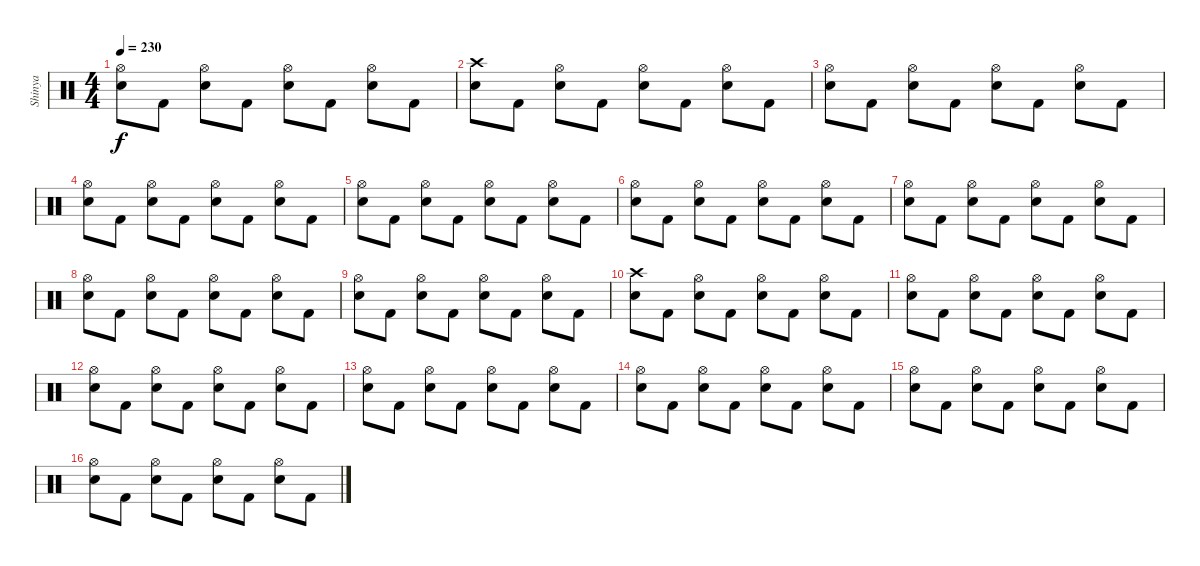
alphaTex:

\track ("Shinya" "Shinya") {instrument percussion}
\staff {score}
\articulation defaults
\ts (4 4)
\tempo 230
\clef neutral
\ks c
("Hi-Hat (open)" "Electric Snare (hit)").8{dy f} "Kick (hit) 2".8 ("Hi-Hat (open)" "Electric Snare (hit)").8 "Kick (hit) 2".8 ("Hi-Hat (open)" "Electric Snare (hit)").8 "Kick (hit) 2".8 ("Hi-Hat (open)" "Electric Snare (hit)").8 "Kick (hit) 2".8 |
("Crash high (hit)" "Electric Snare (hit)").8 "Kick (hit) 2".8 ("Hi-Hat (open)" "Electric Snare (hit)").8 "Kick (hit) 2".8 ("Hi-Hat (open)" "Electric Snare (hit)").8 "Kick (hit) 2".8 ("Hi-Hat (open)" "Electric Snare (hit)").8 "Kick (hit) 2".8 |
("Hi-Hat (open)" "Electric Snare (hit)").8 "Kick (hit) 2".8 ("Hi-Hat (open)" "Electric Snare (hit)").8 "Kick (hit) 2".8 ("Hi-Hat (open)" "Electric Snare (hit)").8 "Kick (hit) 2".8 ("Hi-Hat (open)" "Electric Snare (hit)").8 "Kick (hit) 2".8 |
("Hi-Hat (open)" "Electric Snare (hit)").8 "Kick (hit) 2".8 ("Hi-Hat (open)" "Electric Snare (hit)").8 "Kick (hit) 2".8 ("Hi-Hat (open)" "Electric Snare (hit)").8 "Kick (hit) 2".8 ("Hi-Hat (open)" "Electric Snare (hit)").8 "Kick (hit) 2".8 |
("Hi-Hat (open)" "Electric Snare (hit)").8 "Kick (hit) 2".8 ("Hi-Hat (open)" "Electric Snare (hit)").8 "Kick (hit) 2".8 ("Hi-Hat (open)" "Electric Snare (hit)").8 "Kick (hit) 2".8 ("Hi-Hat (open)" "Electric Snare (hit)").8 "Kick (hit) 2".8 |
("Hi-Hat (open)" "Electric Snare (hit)").8 "Kick (hit) 2".8 ("Hi-Hat (open)" "Electric Snare (hit)").8 "Kick (hit) 2".8 ("Hi-Hat (open)" "Electric Snare (hit)").8 "Kick (hit) 2".8 ("Hi-Hat (open)" "Electric Snare (hit)").8 "Kick (hit) 2".8 |
("Hi-Hat (open)" "Electric Snare (hit)").8 "Kick (hit) 2".8 ("Hi-Hat (open)" "Electric Snare (hit)").8 "Kick (hit) 2".8 ("Hi-Hat (open)" "Electric Snare (hit)").8 "Kick (hit) 2".8 ("Hi-Hat (open)" "Electric Snare (hit)").8 "Kick (hit) 2".8 |
("Hi-Hat (open)" "Electric Snare (hit)").8 "Kick (hit) 2".8 ("Hi-Hat (open)" "Electric Snare (hit)").8 "Kick (hit) 2".8 ("Hi-Hat (open)" "Electric Snare (hit)").8 "Kick (hit) 2".8 ("Hi-Hat (open)" "Electric Snare (hit)").8 "Kick (hit) 2".8 |
("Hi-Hat (open)" "Electric Snare (hit)").8 "Kick (hit) 2".8 ("Hi-Hat (open)" "Electric Snare (hit)").8 "Kick (hit) 2".8 ("Hi-Hat (open)" "Electric Snare (hit)").8 "Kick (hit) 2".8 ("Hi-Hat (open)" "Electric Snare (hit)").8 "Kick (hit) 2".8 |
("Crash high (hit)" "Electric Snare (hit)").8 "Kick (hit) 2".8 ("Hi-Hat (open)" "Electric Snare (hit)").8 "Kick (hit) 2".8 ("Hi-Hat (open)" "Electric Snare (hit)").8 "Kick (hit) 2".8 ("Hi-Hat (open)" "Electric Snare (hit)").8 "Kick (hit) 2".8 |
("Hi-Hat (open)" "Electric Snare (hit)").8 "Kick (hit) 2".8 ("Hi-Hat (open)" "Electric Snare (hit)").8 "Kick (hit) 2".8 ("Hi-Hat (open)" "Electric Snare (hit)").8 "Kick (hit) 2".8 ("Hi-Hat (open)" "Electric Snare (hit)").8 "Kick (hit) 2".8 |
("Hi-Hat (open)" "Electric Snare (hit)").8 "Kick (hit) 2".8 ("Hi-Hat (open)" "Electric Snare (hit)").8 "Kick (hit) 2".8 ("Hi-Hat (open)" "Electric Snare (hit)").8 "Kick (hit) 2".8 ("Hi-Hat (open)" "Electric Snare (hit)").8 "Kick (hit) 2".8 |
("Hi-Hat (open)" "Electric Snare (hit)").8 "Kick (hit) 2".8 ("Hi-Hat (open)" "Electric Snare (hit)").8 "Kick (hit) 2".8 ("Hi-Hat (open)" "Electric Snare (hit)").8 "Kick (hit) 2".8 ("Hi-Hat (open)" "Electric Snare (hit)").8 "Kick (hit) 2".8 |
("Hi-Hat (open)" "Electric Snare (hit)").8 "Kick (hit) 2".8 ("Hi-Hat (open)" "Electric Snare (hit)").8 "Kick (hit) 2".8 ("Hi-Hat (open)" "Electric Snare (hit)").8 "Kick (hit) 2".8 ("Hi-Hat (open)" "Electric Snare (hit)").8 "Kick (hit) 2".8 |
("Hi-Hat (open)" "Electric Snare (hit)").8 "Kick (hit) 2".8 ("Hi-Hat (open)" "Electric Snare (hit)").8 "Kick (hit) 2".8 ("Hi-Hat (open)" "Electric Snare (hit)").8 "Kick (hit) 2".8 ("Hi-Hat (open)" "Electric Snare (hit)").8 "Kick (hit) 2".8 |
("Hi-Hat (open)" "Electric Snare (hit)").8 "Kick (hit) 2".8 ("Hi-Hat (open)" "Electric Snare (hit)").8 "Kick (hit) 2".8 ("Hi-Hat (open)" "Electric Snare (hit)").8 "Kick (hit) 2".8 ("Hi-Hat (open)" "Electric Snare (hit)").8 "Kick (hit) 2".8
